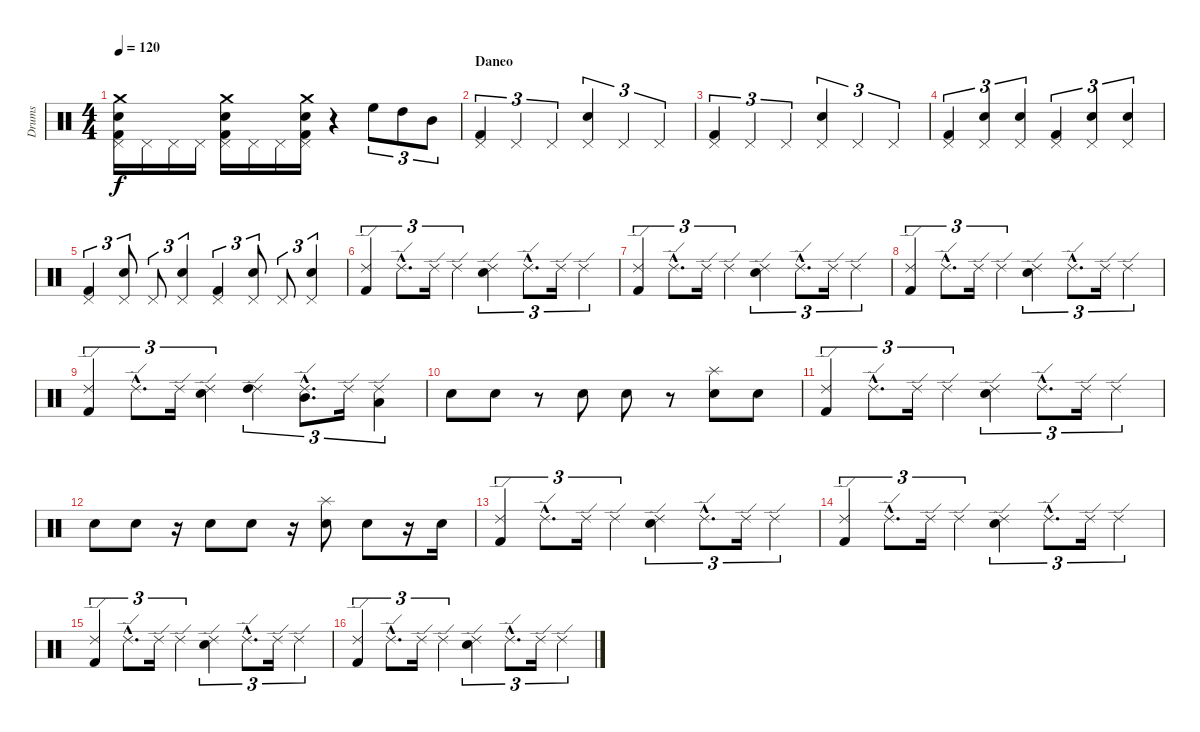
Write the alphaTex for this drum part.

\track ("Drums" "Drums") {instrument percussion}
\staff {score}
\articulation defaults
\ts (4 4)
\tempo 120
\clef neutral
\ks c
("Crash medium (hit)" "Pedal Hi-Hat (hit)" "Electric Snare (hit)" "Kick (hit) 2").16{dy f} "Pedal Hi-Hat (hit)".16 "Pedal Hi-Hat (hit)".16 "Pedal Hi-Hat (hit)".16 ("Crash medium (hit)" "Pedal Hi-Hat (hit)" "Electric Snare (hit)" "Kick (hit) 2").16 "Pedal Hi-Hat (hit)".16 "Pedal Hi-Hat (hit)".16 ("Crash medium (hit)" "Pedal Hi-Hat (hit)" "Electric Snare (hit)" "Kick (hit) 2").16 r.4 "High Floor Tom (hit)".8{tu (3 2)} "High Tom (hit)".8{tu (3 2)} "Mid Tom (hit)".8{tu (3 2)} |
\section ("" "Daneo")
("Pedal Hi-Hat (hit)" "Kick (hit) 2").4{tu (3 2)} "Pedal Hi-Hat (hit)".4{tu (3 2)} "Pedal Hi-Hat (hit)".4{tu (3 2)} ("Pedal Hi-Hat (hit)" "Snare (hit) 2").4{tu (3 2)} "Pedal Hi-Hat (hit)".4{tu (3 2)} "Pedal Hi-Hat (hit)".4{tu (3 2)} |
("Pedal Hi-Hat (hit)" "Kick (hit) 2").4{tu (3 2)} "Pedal Hi-Hat (hit)".4{tu (3 2)} "Pedal Hi-Hat (hit)".4{tu (3 2)} ("Pedal Hi-Hat (hit)" "Snare (hit) 2").4{tu (3 2)} "Pedal Hi-Hat (hit)".4{tu (3 2)} "Pedal Hi-Hat (hit)".4{tu (3 2)} |
("Pedal Hi-Hat (hit)" "Kick (hit) 2").4{tu (3 2)} ("Pedal Hi-Hat (hit)" "Snare (hit) 2").4{tu (3 2)} ("Pedal Hi-Hat (hit)" "Snare (hit) 2").4{tu (3 2)} ("Pedal Hi-Hat (hit)" "Kick (hit) 2").4{tu (3 2)} ("Pedal Hi-Hat (hit)" "Snare (hit) 2").4{tu (3 2)} ("Pedal Hi-Hat (hit)" "Snare (hit) 2").4{tu (3 2)} |
("Pedal Hi-Hat (hit)" "Kick (hit) 2").4{tu (3 2)} ("Pedal Hi-Hat (hit)" "Snare (hit) 2").8{tu (3 2)} "Pedal Hi-Hat (hit)".8{tu (3 2)} ("Pedal Hi-Hat (hit)" "Snare (hit) 2").4{tu (3 2)} ("Pedal Hi-Hat (hit)" "Kick (hit) 2").4{tu (3 2)} ("Pedal Hi-Hat (hit)" "Snare (hit) 2").8{tu (3 2)} "Pedal Hi-Hat (hit)".8{tu (3 2)} ("Pedal Hi-Hat (hit)" "Snare (hit) 2").4{tu (3 2)} |
("Ride (edge) 2" "Kick (hit) 2").4{tu (3 2)} "Ride (edge) 2"{hac}.8{d tu (3 2)} "Ride (edge) 2".16{tu (3 2)} "Ride (edge) 2".4{tu (3 2)} ("Ride (edge) 2" "Snare (hit) 2").4{tu (3 2)} "Ride (edge) 2"{hac}.8{d tu (3 2)} "Ride (edge) 2".16{tu (3 2)} "Ride (edge) 2".4{tu (3 2)} |
("Ride (edge) 2" "Kick (hit) 2").4{tu (3 2)} "Ride (edge) 2"{hac}.8{d tu (3 2)} "Ride (edge) 2".16{tu (3 2)} "Ride (edge) 2".4{tu (3 2)} ("Ride (edge) 2" "Snare (hit) 2").4{tu (3 2)} "Ride (edge) 2"{hac}.8{d tu (3 2)} "Ride (edge) 2".16{tu (3 2)} "Ride (edge) 2".4{tu (3 2)} |
("Ride (edge) 2" "Kick (hit) 2").4{tu (3 2)} "Ride (edge) 2"{hac}.8{d tu (3 2)} "Ride (edge) 2".16{tu (3 2)} "Ride (edge) 2".4{tu (3 2)} ("Ride (edge) 2" "Snare (hit) 2").4{tu (3 2)} "Ride (edge) 2"{hac}.8{d tu (3 2)} "Ride (edge) 2".16{tu (3 2)} "Ride (edge) 2".4{tu (3 2)} |
("Ride (edge) 2" "Kick (hit) 2").4{tu (3 2)} "Ride (edge) 2"{hac}.8{d tu (3 2)} "Ride (edge) 2".16{tu (3 2)} ("Ride (edge) 2" "Snare (hit) 2").4{tu (3 2)} ("Ride (edge) 2" "High Tom (hit)").4{tu (3 2)} ("Ride (edge) 2"{hac} "Mid Tom (hit)"{hac}).8{d tu (3 2)} "Ride (edge) 2".16{tu (3 2)} ("Ride (edge) 2" "Low Tom (hit)").4{tu (3 2)} |
"Snare (hit) 2".8 "Snare (hit) 2".8 r.8 "Snare (hit) 2".8 "Snare (hit) 2".8 r.8 ("Splash (hit)" "Snare (hit) 2").8 "Snare (hit) 2".8 |
("Ride (edge) 2" "Kick (hit) 2").4{tu (3 2)} "Ride (edge) 2"{hac}.8{d tu (3 2)} "Ride (edge) 2".16{tu (3 2)} "Ride (edge) 2".4{tu (3 2)} ("Ride (edge) 2" "Snare (hit) 2").4{tu (3 2)} "Ride (edge) 2"{hac}.8{d tu (3 2)} "Ride (edge) 2".16{tu (3 2)} "Ride (edge) 2".4{tu (3 2)} |
"Snare (hit) 2".8 "Snare (hit) 2".8 r.16 "Snare (hit) 2".8 "Snare (hit) 2".8 r.16 ("Splash (hit)" "Snare (hit) 2").8 "Snare (hit) 2".8 r.16 "Snare (hit) 2".16 |
("Ride (edge) 2" "Kick (hit) 2").4{tu (3 2)} "Ride (edge) 2"{hac}.8{d tu (3 2)} "Ride (edge) 2".16{tu (3 2)} "Ride (edge) 2".4{tu (3 2)} ("Ride (edge) 2" "Snare (hit) 2").4{tu (3 2)} "Ride (edge) 2"{hac}.8{d tu (3 2)} "Ride (edge) 2".16{tu (3 2)} "Ride (edge) 2".4{tu (3 2)} |
("Ride (edge) 2" "Kick (hit) 2").4{tu (3 2)} "Ride (edge) 2"{hac}.8{d tu (3 2)} "Ride (edge) 2".16{tu (3 2)} "Ride (edge) 2".4{tu (3 2)} ("Ride (edge) 2" "Snare (hit) 2").4{tu (3 2)} "Ride (edge) 2"{hac}.8{d tu (3 2)} "Ride (edge) 2".16{tu (3 2)} "Ride (edge) 2".4{tu (3 2)} |
("Ride (edge) 2" "Kick (hit) 2").4{tu (3 2)} "Ride (edge) 2"{hac}.8{d tu (3 2)} "Ride (edge) 2".16{tu (3 2)} "Ride (edge) 2".4{tu (3 2)} ("Ride (edge) 2" "Snare (hit) 2").4{tu (3 2)} "Ride (edge) 2"{hac}.8{d tu (3 2)} "Ride (edge) 2".16{tu (3 2)} "Ride (edge) 2".4{tu (3 2)} |
("Ride (edge) 2" "Kick (hit) 2").4{tu (3 2)} "Ride (edge) 2"{hac}.8{d tu (3 2)} "Ride (edge) 2".16{tu (3 2)} "Ride (edge) 2".4{tu (3 2)} ("Ride (edge) 2" "Snare (hit) 2").4{tu (3 2)} "Ride (edge) 2"{hac}.8{d tu (3 2)} "Ride (edge) 2".16{tu (3 2)} "Ride (edge) 2".4{tu (3 2)}
